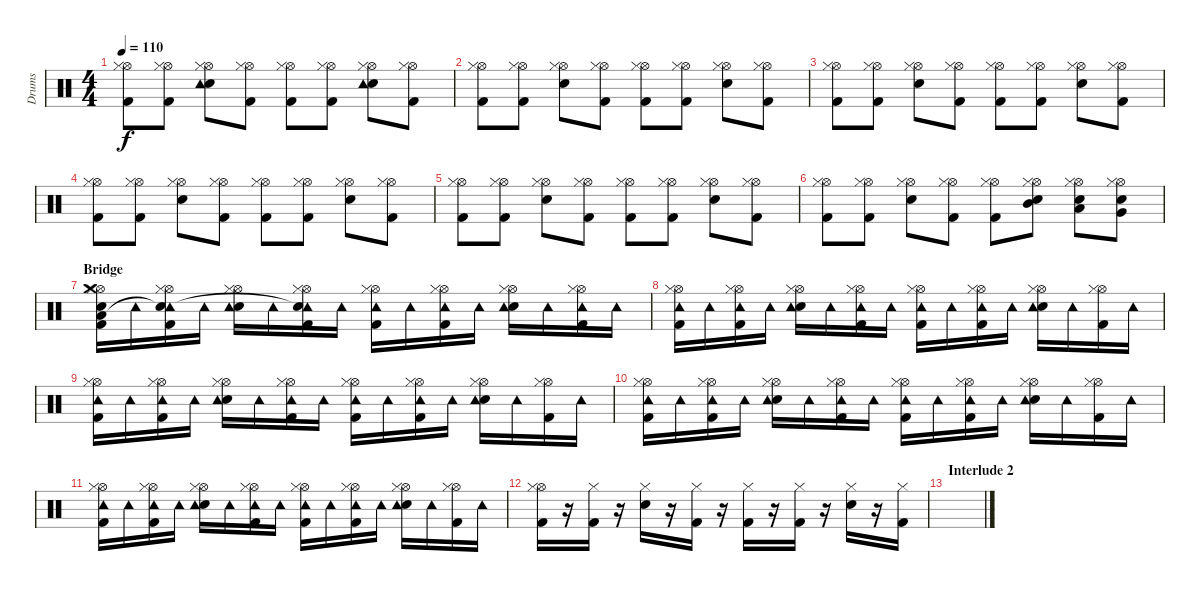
\track ("Drums" "Drums") {instrument percussion}
\staff {score}
\articulation defaults
\ts (4 4)
\tempo 110
\clef neutral
\ks c
("Hi-Hat (open)" "Hi-Hat (closed)" "Kick (hit) 2").8{dy f} ("Hi-Hat (open)" "Hi-Hat (closed)" "Kick (hit) 2").8 ("Hi-Hat (open)" "Hi-Hat (closed)" "Snare (hit) 2" "Tambourine (hit)").8 ("Hi-Hat (open)" "Hi-Hat (closed)" "Kick (hit) 2").8 ("Hi-Hat (open)" "Hi-Hat (closed)" "Kick (hit) 2").8 ("Hi-Hat (open)" "Hi-Hat (closed)" "Kick (hit) 2").8 ("Hi-Hat (open)" "Hi-Hat (closed)" "Snare (hit) 2" "Tambourine (hit)").8 ("Hi-Hat (open)" "Hi-Hat (closed)" "Kick (hit) 2").8 |
("Hi-Hat (open)" "Hi-Hat (closed)" "Kick (hit) 2").8 ("Hi-Hat (open)" "Hi-Hat (closed)" "Kick (hit) 2").8 ("Hi-Hat (open)" "Hi-Hat (closed)" "Snare (hit) 2").8 ("Hi-Hat (open)" "Hi-Hat (closed)" "Kick (hit) 2").8 ("Hi-Hat (open)" "Hi-Hat (closed)" "Kick (hit) 2").8 ("Hi-Hat (open)" "Hi-Hat (closed)" "Kick (hit) 2").8 ("Hi-Hat (open)" "Hi-Hat (closed)" "Snare (hit) 2").8 ("Hi-Hat (open)" "Hi-Hat (closed)" "Kick (hit) 2").8 |
("Hi-Hat (open)" "Hi-Hat (closed)" "Kick (hit) 2").8 ("Hi-Hat (open)" "Hi-Hat (closed)" "Kick (hit) 2").8 ("Hi-Hat (open)" "Hi-Hat (closed)" "Snare (hit) 2").8 ("Hi-Hat (open)" "Hi-Hat (closed)" "Kick (hit) 2").8 ("Hi-Hat (open)" "Hi-Hat (closed)" "Kick (hit) 2").8 ("Hi-Hat (open)" "Hi-Hat (closed)" "Kick (hit) 2").8 ("Hi-Hat (open)" "Hi-Hat (closed)" "Snare (hit) 2").8 ("Hi-Hat (open)" "Hi-Hat (closed)" "Kick (hit) 2").8 |
("Hi-Hat (open)" "Hi-Hat (closed)" "Kick (hit) 2").8 ("Hi-Hat (open)" "Hi-Hat (closed)" "Kick (hit) 2").8 ("Hi-Hat (open)" "Hi-Hat (closed)" "Snare (hit) 2").8 ("Hi-Hat (open)" "Hi-Hat (closed)" "Kick (hit) 2").8 ("Hi-Hat (open)" "Hi-Hat (closed)" "Kick (hit) 2").8 ("Hi-Hat (open)" "Hi-Hat (closed)" "Kick (hit) 2").8 ("Hi-Hat (open)" "Hi-Hat (closed)" "Snare (hit) 2").8 ("Hi-Hat (open)" "Hi-Hat (closed)" "Kick (hit) 2").8 |
("Hi-Hat (open)" "Hi-Hat (closed)" "Kick (hit) 2").8 ("Hi-Hat (open)" "Hi-Hat (closed)" "Kick (hit) 2").8 ("Hi-Hat (open)" "Hi-Hat (closed)" "Snare (hit) 2").8 ("Hi-Hat (open)" "Hi-Hat (closed)" "Kick (hit) 2").8 ("Hi-Hat (open)" "Hi-Hat (closed)" "Kick (hit) 2").8 ("Hi-Hat (open)" "Hi-Hat (closed)" "Kick (hit) 2").8 ("Hi-Hat (open)" "Hi-Hat (closed)" "Snare (hit) 2").8 ("Hi-Hat (open)" "Hi-Hat (closed)" "Kick (hit) 2").8 |
("Hi-Hat (open)" "Hi-Hat (closed)" "Kick (hit) 2").8 ("Hi-Hat (open)" "Hi-Hat (closed)" "Kick (hit) 2").8 ("Hi-Hat (open)" "Hi-Hat (closed)" "Snare (hit) 2").8 ("Hi-Hat (open)" "Hi-Hat (closed)" "Kick (hit) 2").8 ("Hi-Hat (open)" "Hi-Hat (closed)" "Kick (hit) 2").8 ("Hi-Hat (open)" "Hi-Hat (closed)" "Snare (hit) 2" "Mid Tom (hit)").8 ("Hi-Hat (open)" "Hi-Hat (closed)" "Snare (hit) 2" "Low Tom (hit)").8 ("Hi-Hat (open)" "Hi-Hat (closed)" "Snare (hit) 2" "Very Low Tom (hit)").8 |
\section ("" "Bridge")
("Hi-Hat (open)" "Hi-Hat (closed)" "Electric Snare (hit)" "Kick (hit) 2" "Low Floor Tom (hit)" "Crash medium (hit)").16 "Tambourine (hit)".16 ("Hi-Hat (open)" "Hi-Hat (closed)" "Kick (hit) 2" "Tambourine (hit)" "Snare (hit)"{t}).16 "Tambourine (hit)".16 ("Hi-Hat (open)" "Hi-Hat (closed)" "Snare (hit) 2" "Tambourine (hit)").16 "Tambourine (hit)".16 ("Hi-Hat (open)" "Hi-Hat (closed)" "Kick (hit) 2" "Tambourine (hit)" "Snare (hit)"{t}).16 "Tambourine (hit)".16 ("Hi-Hat (open)" "Hi-Hat (closed)" "Kick (hit) 2" "Tambourine (hit)").16 "Tambourine (hit)".16 ("Hi-Hat (open)" "Hi-Hat (closed)" "Kick (hit) 2" "Tambourine (hit)").16 "Tambourine (hit)".16 ("Hi-Hat (open)" "Hi-Hat (closed)" "Snare (hit) 2" "Tambourine (hit)").16 "Tambourine (hit)".16 ("Hi-Hat (open)" "Hi-Hat (closed)" "Kick (hit) 2" "Tambourine (hit)").16 "Tambourine (hit)".16 |
("Hi-Hat (open)" "Hi-Hat (closed)" "Kick (hit) 2" "Tambourine (hit)").16 "Tambourine (hit)".16 ("Hi-Hat (open)" "Hi-Hat (closed)" "Kick (hit) 2" "Tambourine (hit)").16 "Tambourine (hit)".16 ("Hi-Hat (open)" "Hi-Hat (closed)" "Snare (hit) 2" "Tambourine (hit)").16 "Tambourine (hit)".16 ("Hi-Hat (open)" "Hi-Hat (closed)" "Kick (hit) 2" "Tambourine (hit)").16 "Tambourine (hit)".16 ("Hi-Hat (open)" "Hi-Hat (closed)" "Kick (hit) 2" "Tambourine (hit)").16 "Tambourine (hit)".16 ("Hi-Hat (open)" "Hi-Hat (closed)" "Kick (hit) 2" "Tambourine (hit)").16 "Tambourine (hit)".16 ("Hi-Hat (open)" "Hi-Hat (closed)" "Snare (hit) 2" "Tambourine (hit)").16 "Tambourine (hit)".16 ("Hi-Hat (open)" "Hi-Hat (closed)" "Kick (hit) 2").16 "Tambourine (hit)".16 |
("Hi-Hat (open)" "Hi-Hat (closed)" "Kick (hit) 2" "Tambourine (hit)").16 "Tambourine (hit)".16 ("Hi-Hat (open)" "Hi-Hat (closed)" "Kick (hit) 2" "Tambourine (hit)").16 "Tambourine (hit)".16 ("Hi-Hat (open)" "Hi-Hat (closed)" "Snare (hit) 2" "Tambourine (hit)").16 "Tambourine (hit)".16 ("Hi-Hat (open)" "Hi-Hat (closed)" "Kick (hit) 2" "Tambourine (hit)").16 "Tambourine (hit)".16 ("Hi-Hat (open)" "Hi-Hat (closed)" "Kick (hit) 2" "Tambourine (hit)").16 "Tambourine (hit)".16 ("Hi-Hat (open)" "Hi-Hat (closed)" "Kick (hit) 2" "Tambourine (hit)").16 "Tambourine (hit)".16 ("Hi-Hat (open)" "Hi-Hat (closed)" "Snare (hit) 2" "Tambourine (hit)").16 "Tambourine (hit)".16 ("Hi-Hat (open)" "Hi-Hat (closed)" "Kick (hit) 2").16 "Tambourine (hit)".16 |
("Hi-Hat (open)" "Hi-Hat (closed)" "Kick (hit) 2" "Tambourine (hit)").16 "Tambourine (hit)".16 ("Hi-Hat (open)" "Hi-Hat (closed)" "Kick (hit) 2" "Tambourine (hit)").16 "Tambourine (hit)".16 ("Hi-Hat (open)" "Hi-Hat (closed)" "Snare (hit) 2" "Tambourine (hit)").16 "Tambourine (hit)".16 ("Hi-Hat (open)" "Hi-Hat (closed)" "Kick (hit) 2" "Tambourine (hit)").16 "Tambourine (hit)".16 ("Hi-Hat (open)" "Hi-Hat (closed)" "Kick (hit) 2" "Tambourine (hit)").16 "Tambourine (hit)".16 ("Hi-Hat (open)" "Hi-Hat (closed)" "Kick (hit) 2" "Tambourine (hit)").16 "Tambourine (hit)".16 ("Hi-Hat (open)" "Hi-Hat (closed)" "Snare (hit) 2" "Tambourine (hit)").16 "Tambourine (hit)".16 ("Hi-Hat (open)" "Hi-Hat (closed)" "Kick (hit) 2").16 "Tambourine (hit)".16 |
("Hi-Hat (open)" "Hi-Hat (closed)" "Kick (hit) 2" "Tambourine (hit)").16 "Tambourine (hit)".16 ("Hi-Hat (open)" "Hi-Hat (closed)" "Kick (hit) 2" "Tambourine (hit)").16 "Tambourine (hit)".16 ("Hi-Hat (open)" "Hi-Hat (closed)" "Snare (hit) 2" "Tambourine (hit)").16 "Tambourine (hit)".16 ("Hi-Hat (open)" "Hi-Hat (closed)" "Kick (hit) 2" "Tambourine (hit)").16 "Tambourine (hit)".16 ("Hi-Hat (open)" "Hi-Hat (closed)" "Kick (hit) 2" "Tambourine (hit)").16 "Tambourine (hit)".16 ("Hi-Hat (open)" "Hi-Hat (closed)" "Kick (hit) 2" "Tambourine (hit)").16 "Tambourine (hit)".16 ("Hi-Hat (open)" "Hi-Hat (closed)" "Snare (hit) 2" "Tambourine (hit)").16 "Tambourine (hit)".16 ("Hi-Hat (open)" "Hi-Hat (closed)" "Kick (hit) 2").16 "Tambourine (hit)".16 |
("Hi-Hat (open)" "Hi-Hat (closed)" "Kick (hit) 2").16 r.16 ("Hi-Hat (closed)" "Kick (hit) 2").16 r.16 ("Hi-Hat (closed)" "Snare (hit) 2").16 r.16 ("Hi-Hat (closed)" "Kick (hit) 2").16 r.16 ("Hi-Hat (closed)" "Kick (hit) 2").16 r.16 ("Hi-Hat (closed)" "Kick (hit) 2").16 r.16 ("Hi-Hat (closed)" "Snare (hit) 2").16 r.16 ("Hi-Hat (closed)" "Kick (hit) 2").16 |
\section ("" "Interlude 2")
